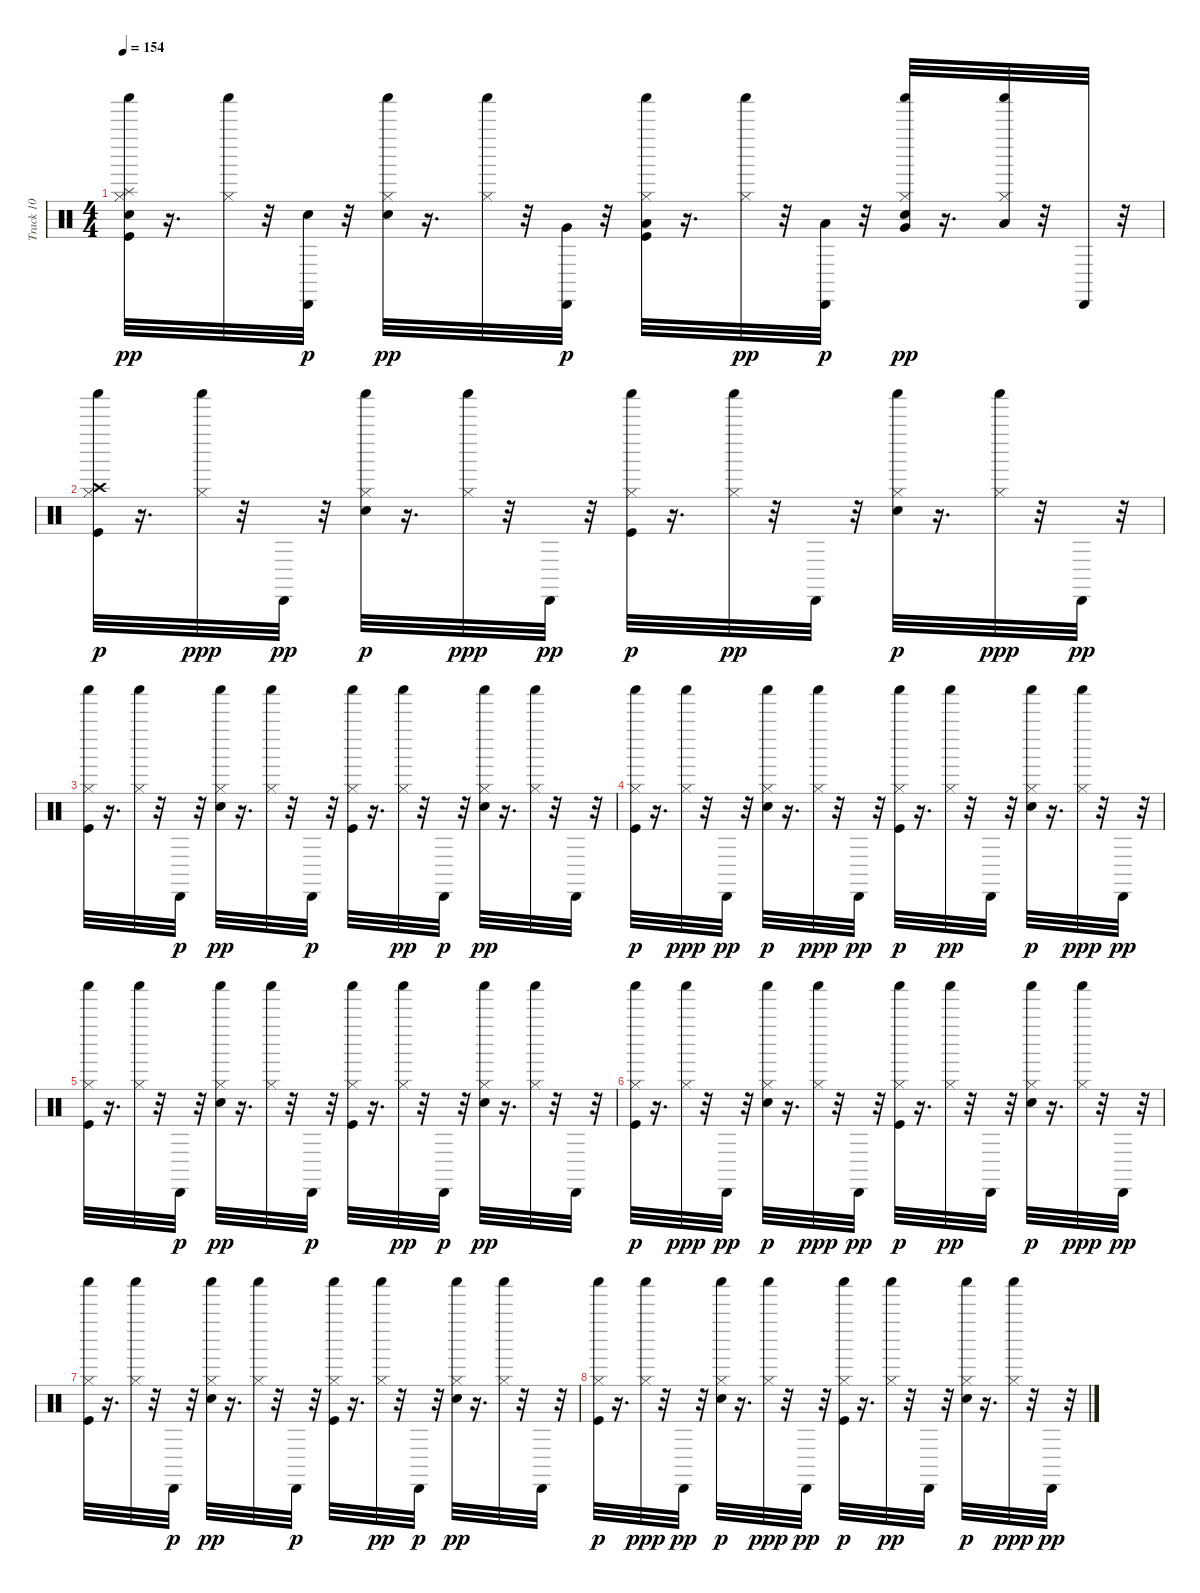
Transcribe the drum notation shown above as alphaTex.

\track ("Track 10" "Track 10") {instrument percussion}
\staff {score}
\articulation defaults
\ts (4 4)
\tempo 154
\clef neutral
\ks c
("Kick (hit)" "Electric Snare (hit)" "Hi-Hat (closed)" "Splash (hit)" "Shaker (hit)").32{dy pp} r.16{d} ("Hi-Hat (closed)" "Shaker (hit)").32 r.32 ("Electric Snare (hit)" "Cabasa (hit)").32{dy p} r.32 ("Electric Snare (hit)" "Hi-Hat (closed)" "Shaker (hit)").32{dy pp} r.16{d} ("Hi-Hat (closed)" "Shaker (hit)").32 r.32 ("Very Low Tom (hit)" "Cabasa (hit)").32{dy p} r.32 ("Kick (hit)" "Hi-Hat (closed)" "Low Tom (hit)" "Shaker (hit)").32 r.16{d} ("Hi-Hat (closed)" "Shaker (hit)").32{dy pp} r.32 ("Low Floor Tom (hit)" "Cabasa (hit)").32{dy p} r.32 ("Electric Snare (hit)" "Hi-Hat (closed)" "Very Low Tom (hit)" "Shaker (hit)").32{dy pp} r.16{d} ("Low Floor Tom (hit)" "Hi-Hat (closed)" "Shaker (hit)").32 r.32 "Cabasa (hit)".32 r.32 |
("Kick (hit)" "Hi-Hat (closed)" "Crash high (hit)" "Shaker (hit)").32{dy p} r.16{d} ("Hi-Hat (closed)" "Shaker (hit)").32{dy ppp} r.32 "Cabasa (hit)".32{dy pp} r.32 ("Electric Snare (hit)" "Hi-Hat (closed)" "Shaker (hit)").32{dy p} r.16{d} ("Hi-Hat (closed)" "Shaker (hit)").32{dy ppp} r.32 "Cabasa (hit)".32{dy pp} r.32 ("Kick (hit)" "Hi-Hat (closed)" "Shaker (hit)").32{dy p} r.16{d} ("Hi-Hat (closed)" "Shaker (hit)").32{dy pp} r.32 "Cabasa (hit)".32 r.32 ("Electric Snare (hit)" "Hi-Hat (closed)" "Shaker (hit)").32{dy p} r.16{d} ("Hi-Hat (closed)" "Shaker (hit)").32{dy ppp} r.32 "Cabasa (hit)".32{dy pp} r.32 |
("Kick (hit)" "Hi-Hat (closed)" "Shaker (hit)").32 r.16{d} ("Hi-Hat (closed)" "Shaker (hit)").32 r.32 "Cabasa (hit)".32{dy p} r.32 ("Electric Snare (hit)" "Hi-Hat (closed)" "Shaker (hit)").32{dy pp} r.16{d} ("Hi-Hat (closed)" "Shaker (hit)").32 r.32 "Cabasa (hit)".32{dy p} r.32 ("Kick (hit)" "Hi-Hat (closed)" "Shaker (hit)").32 r.16{d} ("Hi-Hat (closed)" "Shaker (hit)").32{dy pp} r.32 "Cabasa (hit)".32{dy p} r.32 ("Electric Snare (hit)" "Hi-Hat (closed)" "Shaker (hit)").32{dy pp} r.16{d} ("Hi-Hat (closed)" "Shaker (hit)").32 r.32 "Cabasa (hit)".32 r.32 |
("Kick (hit)" "Hi-Hat (closed)" "Shaker (hit)").32{dy p} r.16{d} ("Hi-Hat (closed)" "Shaker (hit)").32{dy ppp} r.32 "Cabasa (hit)".32{dy pp} r.32 ("Electric Snare (hit)" "Hi-Hat (closed)" "Shaker (hit)").32{dy p} r.16{d} ("Hi-Hat (closed)" "Shaker (hit)").32{dy ppp} r.32 "Cabasa (hit)".32{dy pp} r.32 ("Kick (hit)" "Hi-Hat (closed)" "Shaker (hit)").32{dy p} r.16{d} ("Hi-Hat (closed)" "Shaker (hit)").32{dy pp} r.32 "Cabasa (hit)".32 r.32 ("Electric Snare (hit)" "Hi-Hat (closed)" "Shaker (hit)").32{dy p} r.16{d} ("Hi-Hat (closed)" "Shaker (hit)").32{dy ppp} r.32 "Cabasa (hit)".32{dy pp} r.32 |
("Kick (hit)" "Hi-Hat (closed)" "Shaker (hit)").32 r.16{d} ("Hi-Hat (closed)" "Shaker (hit)").32 r.32 "Cabasa (hit)".32{dy p} r.32 ("Electric Snare (hit)" "Hi-Hat (closed)" "Shaker (hit)").32{dy pp} r.16{d} ("Hi-Hat (closed)" "Shaker (hit)").32 r.32 "Cabasa (hit)".32{dy p} r.32 ("Kick (hit)" "Hi-Hat (closed)" "Shaker (hit)").32 r.16{d} ("Hi-Hat (closed)" "Shaker (hit)").32{dy pp} r.32 "Cabasa (hit)".32{dy p} r.32 ("Electric Snare (hit)" "Hi-Hat (closed)" "Shaker (hit)").32{dy pp} r.16{d} ("Hi-Hat (closed)" "Shaker (hit)").32 r.32 "Cabasa (hit)".32 r.32 |
("Kick (hit)" "Hi-Hat (closed)" "Shaker (hit)").32{dy p} r.16{d} ("Hi-Hat (closed)" "Shaker (hit)").32{dy ppp} r.32 "Cabasa (hit)".32{dy pp} r.32 ("Electric Snare (hit)" "Hi-Hat (closed)" "Shaker (hit)").32{dy p} r.16{d} ("Hi-Hat (closed)" "Shaker (hit)").32{dy ppp} r.32 "Cabasa (hit)".32{dy pp} r.32 ("Kick (hit)" "Hi-Hat (closed)" "Shaker (hit)").32{dy p} r.16{d} ("Hi-Hat (closed)" "Shaker (hit)").32{dy pp} r.32 "Cabasa (hit)".32 r.32 ("Electric Snare (hit)" "Hi-Hat (closed)" "Shaker (hit)").32{dy p} r.16{d} ("Hi-Hat (closed)" "Shaker (hit)").32{dy ppp} r.32 "Cabasa (hit)".32{dy pp} r.32 |
("Kick (hit)" "Hi-Hat (closed)" "Shaker (hit)").32 r.16{d} ("Hi-Hat (closed)" "Shaker (hit)").32 r.32 "Cabasa (hit)".32{dy p} r.32 ("Electric Snare (hit)" "Hi-Hat (closed)" "Shaker (hit)").32{dy pp} r.16{d} ("Hi-Hat (closed)" "Shaker (hit)").32 r.32 "Cabasa (hit)".32{dy p} r.32 ("Kick (hit)" "Hi-Hat (closed)" "Shaker (hit)").32 r.16{d} ("Hi-Hat (closed)" "Shaker (hit)").32{dy pp} r.32 "Cabasa (hit)".32{dy p} r.32 ("Electric Snare (hit)" "Hi-Hat (closed)" "Shaker (hit)").32{dy pp} r.16{d} ("Hi-Hat (closed)" "Shaker (hit)").32 r.32 "Cabasa (hit)".32 r.32 |
("Kick (hit)" "Hi-Hat (closed)" "Shaker (hit)").32{dy p} r.16{d} ("Hi-Hat (closed)" "Shaker (hit)").32{dy ppp} r.32 "Cabasa (hit)".32{dy pp} r.32 ("Electric Snare (hit)" "Hi-Hat (closed)" "Shaker (hit)").32{dy p} r.16{d} ("Hi-Hat (closed)" "Shaker (hit)").32{dy ppp} r.32 "Cabasa (hit)".32{dy pp} r.32 ("Kick (hit)" "Hi-Hat (closed)" "Shaker (hit)").32{dy p} r.16{d} ("Hi-Hat (closed)" "Shaker (hit)").32{dy pp} r.32 "Cabasa (hit)".32 r.32 ("Electric Snare (hit)" "Hi-Hat (closed)" "Shaker (hit)").32{dy p} r.16{d} ("Hi-Hat (closed)" "Shaker (hit)").32{dy ppp} r.32 "Cabasa (hit)".32{dy pp} r.32
